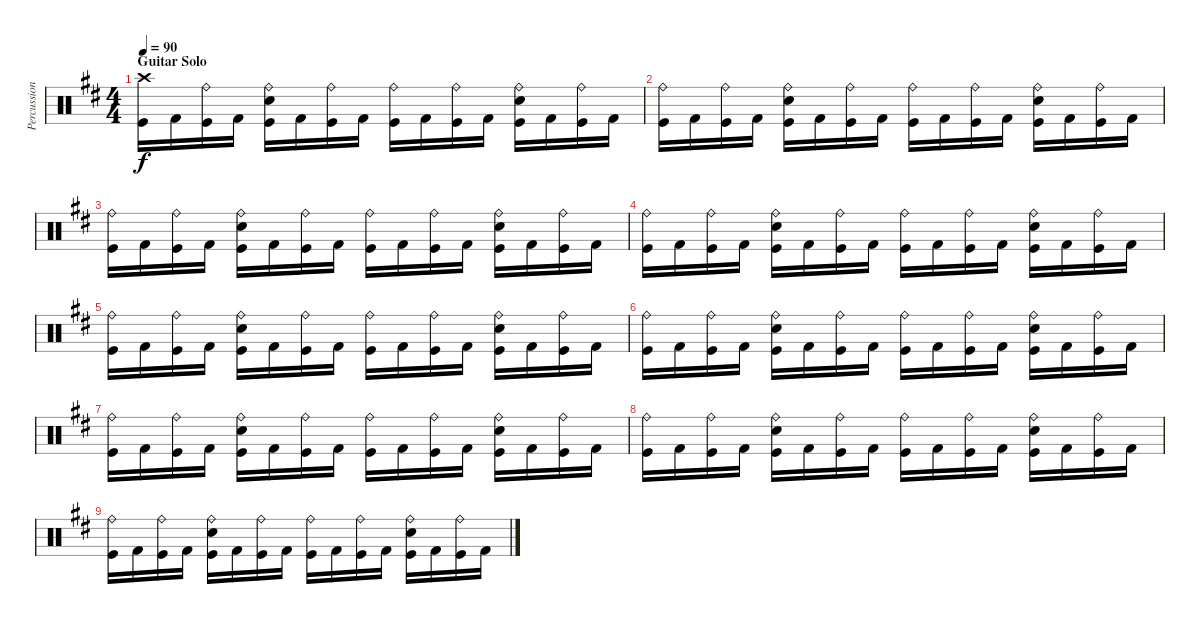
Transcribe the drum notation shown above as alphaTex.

\track ("Percussion" "Percussion") {instrument percussion}
\staff {score}
\articulation defaults
\ts (4 4)
\section ("" "Guitar Solo")
\tempo 90
\clef neutral
\ks d
("Crash high (hit)" "Kick (hit)").16{dy f} "Kick (hit) 2".16 ("Ride (bell)" "Kick (hit)").16 "Kick (hit) 2".16 ("Ride (bell)" "Snare (hit) 2" "Kick (hit)").16 "Kick (hit) 2".16 ("Ride (bell)" "Kick (hit)").16 "Kick (hit) 2".16 ("Ride (bell)" "Kick (hit)").16 "Kick (hit) 2".16 ("Ride (bell)" "Kick (hit)").16 "Kick (hit) 2".16 ("Ride (bell)" "Snare (hit) 2" "Kick (hit)").16 "Kick (hit) 2".16 ("Ride (bell)" "Kick (hit)").16 "Kick (hit) 2".16 |
("Ride (bell)" "Kick (hit)").16 "Kick (hit) 2".16 ("Ride (bell)" "Kick (hit)").16 "Kick (hit) 2".16 ("Ride (bell)" "Snare (hit) 2" "Kick (hit)").16 "Kick (hit) 2".16 ("Ride (bell)" "Kick (hit)").16 "Kick (hit) 2".16 ("Ride (bell)" "Kick (hit)").16 "Kick (hit) 2".16 ("Ride (bell)" "Kick (hit)").16 "Kick (hit) 2".16 ("Ride (bell)" "Snare (hit) 2" "Kick (hit)").16 "Kick (hit) 2".16 ("Ride (bell)" "Kick (hit)").16 "Kick (hit) 2".16 |
("Ride (bell)" "Kick (hit)").16 "Kick (hit) 2".16 ("Ride (bell)" "Kick (hit)").16 "Kick (hit) 2".16 ("Ride (bell)" "Snare (hit) 2" "Kick (hit)").16 "Kick (hit) 2".16 ("Ride (bell)" "Kick (hit)").16 "Kick (hit) 2".16 ("Ride (bell)" "Kick (hit)").16 "Kick (hit) 2".16 ("Ride (bell)" "Kick (hit)").16 "Kick (hit) 2".16 ("Ride (bell)" "Snare (hit) 2" "Kick (hit)").16 "Kick (hit) 2".16 ("Ride (bell)" "Kick (hit)").16 "Kick (hit) 2".16 |
("Ride (bell)" "Kick (hit)").16 "Kick (hit) 2".16 ("Ride (bell)" "Kick (hit)").16 "Kick (hit) 2".16 ("Ride (bell)" "Snare (hit) 2" "Kick (hit)").16 "Kick (hit) 2".16 ("Ride (bell)" "Kick (hit)").16 "Kick (hit) 2".16 ("Ride (bell)" "Kick (hit)").16 "Kick (hit) 2".16 ("Ride (bell)" "Kick (hit)").16 "Kick (hit) 2".16 ("Ride (bell)" "Snare (hit) 2" "Kick (hit)").16 "Kick (hit) 2".16 ("Ride (bell)" "Kick (hit)").16 "Kick (hit) 2".16 |
("Ride (bell)" "Kick (hit)").16 "Kick (hit) 2".16 ("Ride (bell)" "Kick (hit)").16 "Kick (hit) 2".16 ("Ride (bell)" "Snare (hit) 2" "Kick (hit)").16 "Kick (hit) 2".16 ("Ride (bell)" "Kick (hit)").16 "Kick (hit) 2".16 ("Ride (bell)" "Kick (hit)").16 "Kick (hit) 2".16 ("Ride (bell)" "Kick (hit)").16 "Kick (hit) 2".16 ("Ride (bell)" "Snare (hit) 2" "Kick (hit)").16 "Kick (hit) 2".16 ("Ride (bell)" "Kick (hit)").16 "Kick (hit) 2".16 |
("Ride (bell)" "Kick (hit)").16 "Kick (hit) 2".16 ("Ride (bell)" "Kick (hit)").16 "Kick (hit) 2".16 ("Ride (bell)" "Snare (hit) 2" "Kick (hit)").16 "Kick (hit) 2".16 ("Ride (bell)" "Kick (hit)").16 "Kick (hit) 2".16 ("Ride (bell)" "Kick (hit)").16 "Kick (hit) 2".16 ("Ride (bell)" "Kick (hit)").16 "Kick (hit) 2".16 ("Ride (bell)" "Snare (hit) 2" "Kick (hit)").16 "Kick (hit) 2".16 ("Ride (bell)" "Kick (hit)").16 "Kick (hit) 2".16 |
("Ride (bell)" "Kick (hit)").16 "Kick (hit) 2".16 ("Ride (bell)" "Kick (hit)").16 "Kick (hit) 2".16 ("Ride (bell)" "Snare (hit) 2" "Kick (hit)").16 "Kick (hit) 2".16 ("Ride (bell)" "Kick (hit)").16 "Kick (hit) 2".16 ("Ride (bell)" "Kick (hit)").16 "Kick (hit) 2".16 ("Ride (bell)" "Kick (hit)").16 "Kick (hit) 2".16 ("Ride (bell)" "Snare (hit) 2" "Kick (hit)").16 "Kick (hit) 2".16 ("Ride (bell)" "Kick (hit)").16 "Kick (hit) 2".16 |
("Ride (bell)" "Kick (hit)").16 "Kick (hit) 2".16 ("Ride (bell)" "Kick (hit)").16 "Kick (hit) 2".16 ("Ride (bell)" "Snare (hit) 2" "Kick (hit)").16 "Kick (hit) 2".16 ("Ride (bell)" "Kick (hit)").16 "Kick (hit) 2".16 ("Ride (bell)" "Kick (hit)").16 "Kick (hit) 2".16 ("Ride (bell)" "Kick (hit)").16 "Kick (hit) 2".16 ("Ride (bell)" "Snare (hit) 2" "Kick (hit)").16 "Kick (hit) 2".16 ("Ride (bell)" "Kick (hit)").16 "Kick (hit) 2".16 |
("Ride (bell)" "Kick (hit)").16 "Kick (hit) 2".16 ("Ride (bell)" "Kick (hit)").16 "Kick (hit) 2".16 ("Ride (bell)" "Snare (hit) 2" "Kick (hit)").16 "Kick (hit) 2".16 ("Ride (bell)" "Kick (hit)").16 "Kick (hit) 2".16 ("Ride (bell)" "Kick (hit)").16 "Kick (hit) 2".16 ("Ride (bell)" "Kick (hit)").16 "Kick (hit) 2".16 ("Ride (bell)" "Snare (hit) 2" "Kick (hit)").16 "Kick (hit) 2".16 ("Ride (bell)" "Kick (hit)").16 "Kick (hit) 2".16
